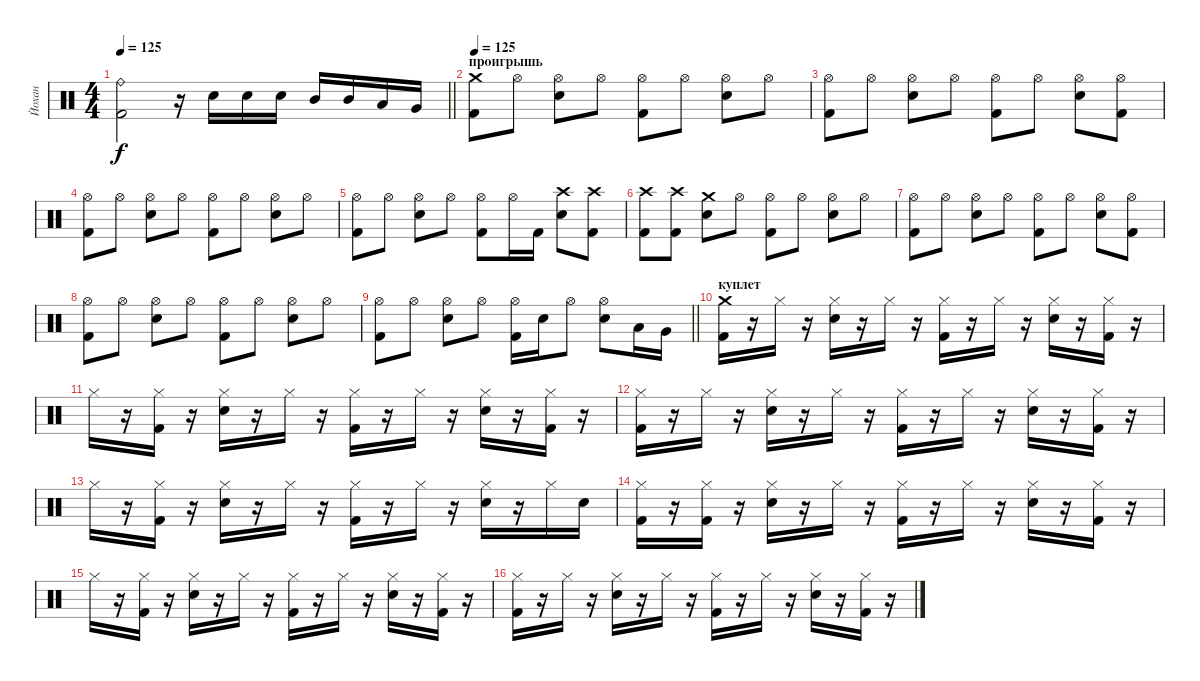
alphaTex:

\track ("Йохан" "Йохан") {instrument percussion}
\staff {score}
\articulation defaults
\ts (4 4)
\tempo 125
\clef neutral
\barLineRight lightlight
\ks c
("Ride (bell)" "Kick (hit) 2").2{dy f} r.16 "Snare (hit) 2".16 "Snare (hit) 2".16 "Snare (hit) 2".16 "Mid Tom (hit)".16 "Mid Tom (hit)".16 "Low Tom (hit)".16 "Very Low Tom (hit)".16 |
\section ("" "проигрышь")
\tempo 125
("Crash medium (hit)" "Kick (hit) 2").8 "Hi-Hat (open)".8 ("Hi-Hat (open)" "Snare (hit) 2").8 "Hi-Hat (open)".8 ("Hi-Hat (open)" "Kick (hit) 2").8 "Hi-Hat (open)".8 ("Hi-Hat (open)" "Snare (hit) 2").8 "Hi-Hat (open)".8 |
("Hi-Hat (open)" "Kick (hit) 2").8 "Hi-Hat (open)".8 ("Hi-Hat (open)" "Snare (hit) 2").8 "Hi-Hat (open)".8 ("Hi-Hat (open)" "Kick (hit) 2").8 "Hi-Hat (open)".8 ("Hi-Hat (open)" "Snare (hit) 2").8 ("Hi-Hat (open)" "Kick (hit) 2").8 |
("Hi-Hat (open)" "Kick (hit) 2").8 "Hi-Hat (open)".8 ("Hi-Hat (open)" "Snare (hit) 2").8 "Hi-Hat (open)".8 ("Hi-Hat (open)" "Kick (hit) 2").8 "Hi-Hat (open)".8 ("Hi-Hat (open)" "Snare (hit) 2").8 "Hi-Hat (open)".8 |
("Hi-Hat (open)" "Kick (hit) 2").8 "Hi-Hat (open)".8 ("Hi-Hat (open)" "Snare (hit) 2").8 "Hi-Hat (open)".8 ("Hi-Hat (open)" "Kick (hit) 2").8 "Hi-Hat (open)".16 "Kick (hit) 2".16 ("Crash high (hit)" "Snare (hit) 2").8 ("Crash high (hit)" "Kick (hit) 2").8 |
("Crash high (hit)" "Kick (hit) 2").8 ("Crash high (hit)" "Kick (hit) 2").8 ("Crash medium (hit)" "Snare (hit) 2").8 "Hi-Hat (open)".8 ("Hi-Hat (open)" "Kick (hit) 2").8 "Hi-Hat (open)".8 ("Hi-Hat (open)" "Snare (hit) 2").8 "Hi-Hat (open)".8 |
("Hi-Hat (open)" "Kick (hit) 2").8 "Hi-Hat (open)".8 ("Hi-Hat (open)" "Snare (hit) 2").8 "Hi-Hat (open)".8 ("Hi-Hat (open)" "Kick (hit) 2").8 "Hi-Hat (open)".8 ("Hi-Hat (open)" "Snare (hit) 2").8 ("Hi-Hat (open)" "Kick (hit) 2").8 |
("Hi-Hat (open)" "Kick (hit) 2").8 "Hi-Hat (open)".8 ("Hi-Hat (open)" "Snare (hit) 2").8 "Hi-Hat (open)".8 ("Hi-Hat (open)" "Kick (hit) 2").8 "Hi-Hat (open)".8 ("Hi-Hat (open)" "Snare (hit) 2").8 "Hi-Hat (open)".8 |
\barLineRight lightlight
("Hi-Hat (open)" "Kick (hit) 2").8 "Hi-Hat (open)".8 ("Hi-Hat (open)" "Snare (hit) 2").8 "Hi-Hat (open)".8 ("Hi-Hat (open)" "Kick (hit) 2").16 "Snare (hit) 2".16 "Hi-Hat (open)".8 ("Hi-Hat (open)" "Snare (hit) 2").8 "Low Floor Tom (hit)".16 "Very Low Tom (hit)".16 |
\section ("" "куплет")
("Crash medium (hit)" "Kick (hit) 2").16 r.16 "Hi-Hat (closed)".16 r.16 ("Hi-Hat (closed)" "Snare (hit) 2").16 r.16 "Hi-Hat (closed)".16 r.16 ("Hi-Hat (closed)" "Kick (hit) 2").16 r.16 "Hi-Hat (closed)".16 r.16 ("Hi-Hat (closed)" "Snare (hit) 2").16 r.16 ("Hi-Hat (closed)" "Kick (hit) 2").16 r.16 |
"Hi-Hat (closed)".16 r.16 ("Hi-Hat (closed)" "Kick (hit) 2").16 r.16 ("Hi-Hat (closed)" "Snare (hit) 2").16 r.16 "Hi-Hat (closed)".16 r.16 ("Hi-Hat (closed)" "Kick (hit) 2").16 r.16 "Hi-Hat (closed)".16 r.16 ("Hi-Hat (closed)" "Snare (hit) 2").16 r.16 ("Hi-Hat (closed)" "Kick (hit) 2").16 r.16 |
("Hi-Hat (closed)" "Kick (hit) 2").16 r.16 "Hi-Hat (closed)".16 r.16 ("Hi-Hat (closed)" "Snare (hit) 2").16 r.16 "Hi-Hat (closed)".16 r.16 ("Hi-Hat (closed)" "Kick (hit) 2").16 r.16 "Hi-Hat (closed)".16 r.16 ("Hi-Hat (closed)" "Snare (hit) 2").16 r.16 ("Hi-Hat (closed)" "Kick (hit) 2").16 r.16 |
"Hi-Hat (closed)".16 r.16 ("Hi-Hat (closed)" "Kick (hit) 2").16 r.16 ("Hi-Hat (closed)" "Snare (hit) 2").16 r.16 "Hi-Hat (closed)".16 r.16 ("Hi-Hat (closed)" "Kick (hit) 2").16 r.16 "Hi-Hat (closed)".16 r.16 ("Hi-Hat (closed)" "Snare (hit) 2").16 r.16 "Hi-Hat (closed)".16 "Snare (hit) 2".16 |
("Hi-Hat (closed)" "Kick (hit) 2").16 r.16 ("Hi-Hat (closed)" "Kick (hit) 2").16 r.16 ("Hi-Hat (closed)" "Snare (hit) 2").16 r.16 "Hi-Hat (closed)".16 r.16 ("Hi-Hat (closed)" "Kick (hit) 2").16 r.16 "Hi-Hat (closed)".16 r.16 ("Hi-Hat (closed)" "Snare (hit) 2").16 r.16 ("Hi-Hat (closed)" "Kick (hit) 2").16 r.16 |
"Hi-Hat (closed)".16 r.16 ("Hi-Hat (closed)" "Kick (hit) 2").16 r.16 ("Hi-Hat (closed)" "Snare (hit) 2").16 r.16 "Hi-Hat (closed)".16 r.16 ("Hi-Hat (closed)" "Kick (hit) 2").16 r.16 "Hi-Hat (closed)".16 r.16 ("Hi-Hat (closed)" "Snare (hit) 2").16 r.16 ("Hi-Hat (closed)" "Kick (hit) 2").16 r.16 |
("Hi-Hat (closed)" "Kick (hit) 2").16 r.16 "Hi-Hat (closed)".16 r.16 ("Hi-Hat (closed)" "Snare (hit) 2").16 r.16 "Hi-Hat (closed)".16 r.16 ("Hi-Hat (closed)" "Kick (hit) 2").16 r.16 "Hi-Hat (closed)".16 r.16 ("Hi-Hat (closed)" "Snare (hit) 2").16 r.16 ("Hi-Hat (closed)" "Kick (hit) 2").16 r.16
